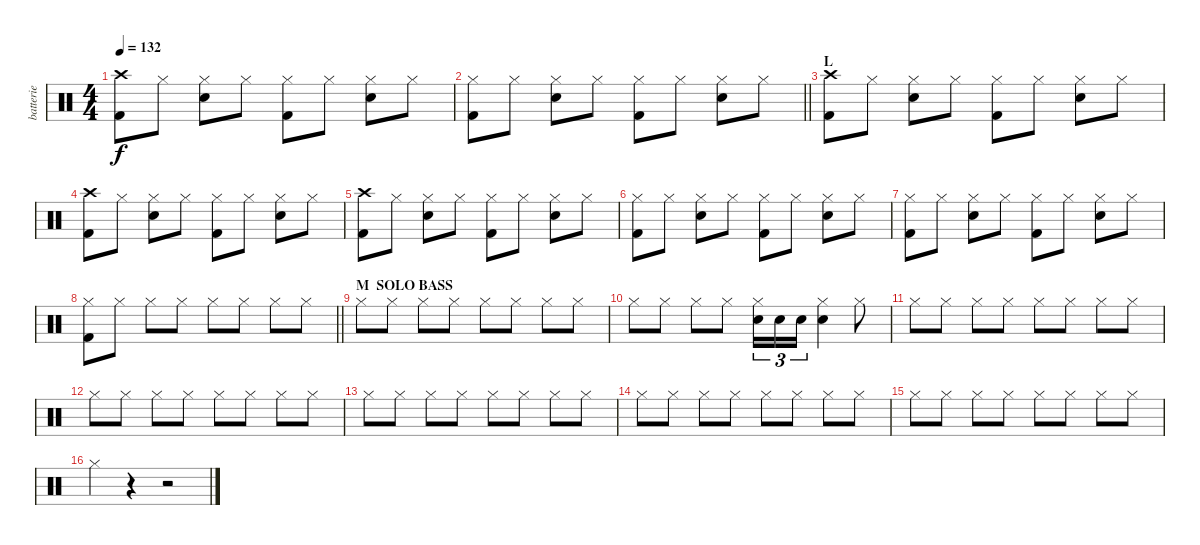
\track ("batterie" "batterie") {instrument percussion}
\staff {score}
\articulation defaults
\ts (4 4)
\tempo 132
\clef neutral
\ks c
("Crash high (hit)" "Kick (hit) 2").8{dy f} "Hi-Hat (closed)".8 ("Hi-Hat (closed)" "Electric Snare (hit)").8 "Hi-Hat (closed)".8 ("Hi-Hat (closed)" "Kick (hit) 2").8 "Hi-Hat (closed)".8 ("Hi-Hat (closed)" "Electric Snare (hit)").8 "Hi-Hat (closed)".8 |
\barLineRight lightlight
("Hi-Hat (closed)" "Kick (hit) 2").8 "Hi-Hat (closed)".8 ("Hi-Hat (closed)" "Electric Snare (hit)").8 "Hi-Hat (closed)".8 ("Hi-Hat (closed)" "Kick (hit) 2").8 "Hi-Hat (closed)".8 ("Hi-Hat (closed)" "Electric Snare (hit)").8 "Hi-Hat (closed)".8 |
\section ("" "L")
("Crash high (hit)" "Kick (hit) 2").8 "Hi-Hat (closed)".8 ("Hi-Hat (closed)" "Electric Snare (hit)").8 "Hi-Hat (closed)".8 ("Hi-Hat (closed)" "Kick (hit) 2").8 "Hi-Hat (closed)".8 ("Hi-Hat (closed)" "Electric Snare (hit)").8 "Hi-Hat (closed)".8 |
("Crash high (hit)" "Kick (hit) 2").8 "Hi-Hat (closed)".8 ("Hi-Hat (closed)" "Electric Snare (hit)").8 "Hi-Hat (closed)".8 ("Hi-Hat (closed)" "Kick (hit) 2").8 "Hi-Hat (closed)".8 ("Hi-Hat (closed)" "Electric Snare (hit)").8 "Hi-Hat (closed)".8 |
("Crash high (hit)" "Kick (hit) 2").8 "Hi-Hat (closed)".8 ("Hi-Hat (closed)" "Electric Snare (hit)").8 "Hi-Hat (closed)".8 ("Hi-Hat (closed)" "Kick (hit) 2").8 "Hi-Hat (closed)".8 ("Hi-Hat (closed)" "Electric Snare (hit)").8 "Hi-Hat (closed)".8 |
("Hi-Hat (closed)" "Kick (hit) 2").8 "Hi-Hat (closed)".8 ("Hi-Hat (closed)" "Electric Snare (hit)").8 "Hi-Hat (closed)".8 ("Hi-Hat (closed)" "Kick (hit) 2").8 "Hi-Hat (closed)".8 ("Hi-Hat (closed)" "Electric Snare (hit)").8 "Hi-Hat (closed)".8 |
("Hi-Hat (closed)" "Kick (hit) 2").8 "Hi-Hat (closed)".8 ("Hi-Hat (closed)" "Electric Snare (hit)").8 "Hi-Hat (closed)".8 ("Hi-Hat (closed)" "Kick (hit) 2").8 "Hi-Hat (closed)".8 ("Hi-Hat (closed)" "Electric Snare (hit)").8 "Hi-Hat (closed)".8 |
\barLineRight lightlight
("Hi-Hat (closed)" "Kick (hit) 2").8 "Hi-Hat (closed)".8 "Hi-Hat (closed)".8 "Hi-Hat (closed)".8 "Hi-Hat (closed)".8 "Hi-Hat (closed)".8 "Hi-Hat (closed)".8 "Hi-Hat (closed)".8 |
\section ("" "M  SOLO BASS")
"Hi-Hat (closed)".8 "Hi-Hat (closed)".8 "Hi-Hat (closed)".8 "Hi-Hat (closed)".8 "Hi-Hat (closed)".8 "Hi-Hat (closed)".8 "Hi-Hat (closed)".8 "Hi-Hat (closed)".8 |
"Hi-Hat (closed)".8 "Hi-Hat (closed)".8 "Hi-Hat (closed)".8 "Hi-Hat (closed)".8 ("Hi-Hat (closed)" "Electric Snare (hit)").16{tu (3 2)} "Electric Snare (hit)".16{tu (3 2)} "Electric Snare (hit)".16{tu (3 2)} ("Hi-Hat (closed)" "Electric Snare (hit)").4 "Hi-Hat (closed)".8 |
"Hi-Hat (closed)".8 "Hi-Hat (closed)".8 "Hi-Hat (closed)".8 "Hi-Hat (closed)".8 "Hi-Hat (closed)".8 "Hi-Hat (closed)".8 "Hi-Hat (closed)".8 "Hi-Hat (closed)".8 |
"Hi-Hat (closed)".8 "Hi-Hat (closed)".8 "Hi-Hat (closed)".8 "Hi-Hat (closed)".8 "Hi-Hat (closed)".8 "Hi-Hat (closed)".8 "Hi-Hat (closed)".8 "Hi-Hat (closed)".8 |
"Hi-Hat (closed)".8 "Hi-Hat (closed)".8 "Hi-Hat (closed)".8 "Hi-Hat (closed)".8 "Hi-Hat (closed)".8 "Hi-Hat (closed)".8 "Hi-Hat (closed)".8 "Hi-Hat (closed)".8 |
"Hi-Hat (closed)".8 "Hi-Hat (closed)".8 "Hi-Hat (closed)".8 "Hi-Hat (closed)".8 "Hi-Hat (closed)".8 "Hi-Hat (closed)".8 "Hi-Hat (closed)".8 "Hi-Hat (closed)".8 |
"Hi-Hat (closed)".8 "Hi-Hat (closed)".8 "Hi-Hat (closed)".8 "Hi-Hat (closed)".8 "Hi-Hat (closed)".8 "Hi-Hat (closed)".8 "Hi-Hat (closed)".8 "Hi-Hat (closed)".8 |
"Hi-Hat (closed)".4 r.4 r.2
